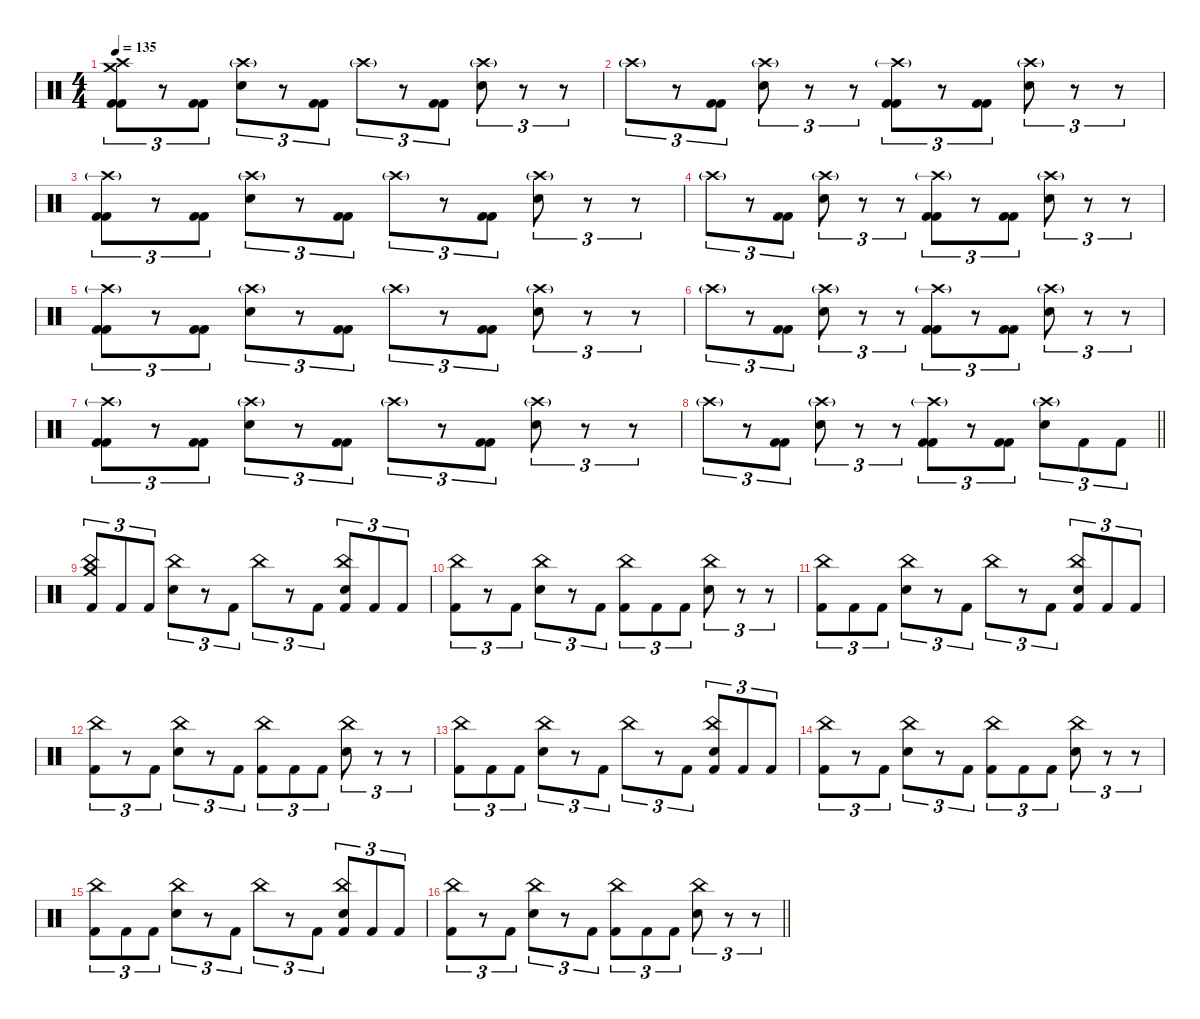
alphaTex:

\defaultSystemsLayout 4
\hideDynamics
\bracketExtendMode nobrackets
\singleTrackTrackNamePolicy hidden
\multiTrackTrackNamePolicy hidden
\otherSystemsTrackNameOrientation horizontal
\track ("Gene Hoglan" "drm.") {instrument percussion}
\staff {score}
\articulation defaults
\ts (4 4)
\tempo 135
\clef neutral
\ks c
("Crash high (hit)" "Crash medium (hit)" "Kick (hit) 2" "Kick (hit) 2").8{tu (3 2) dy f beam Down} r.8{tu (3 2) beam Down} ("Kick (hit) 2" "Kick (hit) 2").8{tu (3 2) beam Down} ("Crash high (hit)"{g} "Snare (hit) 2").8{tu (3 2) beam Down} r.8{tu (3 2) beam Down} ("Kick (hit) 2" "Kick (hit) 2").8{tu (3 2) beam Down} "Crash high (hit)"{g}.8{tu (3 2) dy mf beam Down} r.8{tu (3 2) beam Down} ("Kick (hit) 2" "Kick (hit) 2").8{tu (3 2) dy f beam Down} ("Crash high (hit)"{g} "Snare (hit) 2").8{tu (3 2) beam Down} r.8{tu (3 2) beam Down} r.8{tu (3 2) beam Down} |
"Crash high (hit)"{g}.8{tu (3 2) dy mf beam Down} r.8{tu (3 2) beam Down} ("Kick (hit) 2" "Kick (hit) 2").8{tu (3 2) dy f beam Down} ("Crash high (hit)"{g} "Snare (hit) 2").8{tu (3 2) beam Down} r.8{tu (3 2) beam Down} r.8{tu (3 2) beam Down} ("Crash high (hit)"{g} "Kick (hit) 2" "Kick (hit) 2").8{tu (3 2) beam Down} r.8{tu (3 2) beam Down} ("Kick (hit) 2" "Kick (hit) 2").8{tu (3 2) beam Down} ("Crash high (hit)"{g} "Snare (hit) 2").8{tu (3 2) beam Down} r.8{tu (3 2) beam Down} r.8{tu (3 2) beam Down} |
("Crash high (hit)"{g} "Kick (hit) 2" "Kick (hit) 2").8{tu (3 2) beam Down} r.8{tu (3 2) beam Down} ("Kick (hit) 2" "Kick (hit) 2").8{tu (3 2) beam Down} ("Crash high (hit)"{g} "Snare (hit) 2").8{tu (3 2) beam Down} r.8{tu (3 2) beam Down} ("Kick (hit) 2" "Kick (hit) 2").8{tu (3 2) beam Down} "Crash high (hit)"{g}.8{tu (3 2) dy mf beam Down} r.8{tu (3 2) beam Down} ("Kick (hit) 2" "Kick (hit) 2").8{tu (3 2) dy f beam Down} ("Crash high (hit)"{g} "Snare (hit) 2").8{tu (3 2) beam Down} r.8{tu (3 2) beam Down} r.8{tu (3 2) beam Down} |
"Crash high (hit)"{g}.8{tu (3 2) dy mf beam Down} r.8{tu (3 2) beam Down} ("Kick (hit) 2" "Kick (hit) 2").8{tu (3 2) dy f beam Down} ("Crash high (hit)"{g} "Snare (hit) 2").8{tu (3 2) beam Down} r.8{tu (3 2) beam Down} r.8{tu (3 2) beam Down} ("Crash high (hit)"{g} "Kick (hit) 2" "Kick (hit) 2").8{tu (3 2) beam Down} r.8{tu (3 2) beam Down} ("Kick (hit) 2" "Kick (hit) 2").8{tu (3 2) beam Down} ("Crash high (hit)"{g} "Snare (hit) 2").8{tu (3 2) beam Down} r.8{tu (3 2) beam Down} r.8{tu (3 2) beam Down} |
("Crash high (hit)"{g} "Kick (hit) 2" "Kick (hit) 2").8{tu (3 2) beam Down} r.8{tu (3 2) beam Down} ("Kick (hit) 2" "Kick (hit) 2").8{tu (3 2) beam Down} ("Crash high (hit)"{g} "Snare (hit) 2").8{tu (3 2) beam Down} r.8{tu (3 2) beam Down} ("Kick (hit) 2" "Kick (hit) 2").8{tu (3 2) beam Down} "Crash high (hit)"{g}.8{tu (3 2) dy mf beam Down} r.8{tu (3 2) beam Down} ("Kick (hit) 2" "Kick (hit) 2").8{tu (3 2) dy f beam Down} ("Crash high (hit)"{g} "Snare (hit) 2").8{tu (3 2) beam Down} r.8{tu (3 2) beam Down} r.8{tu (3 2) beam Down} |
"Crash high (hit)"{g}.8{tu (3 2) dy mf beam Down} r.8{tu (3 2) beam Down} ("Kick (hit) 2" "Kick (hit) 2").8{tu (3 2) dy f beam Down} ("Crash high (hit)"{g} "Snare (hit) 2").8{tu (3 2) beam Down} r.8{tu (3 2) beam Down} r.8{tu (3 2) beam Down} ("Crash high (hit)"{g} "Kick (hit) 2" "Kick (hit) 2").8{tu (3 2) beam Down} r.8{tu (3 2) beam Down} ("Kick (hit) 2" "Kick (hit) 2").8{tu (3 2) beam Down} ("Crash high (hit)"{g} "Snare (hit) 2").8{tu (3 2) beam Down} r.8{tu (3 2) beam Down} r.8{tu (3 2) beam Down} |
("Crash high (hit)"{g} "Kick (hit) 2" "Kick (hit) 2").8{tu (3 2) beam Down} r.8{tu (3 2) beam Down} ("Kick (hit) 2" "Kick (hit) 2").8{tu (3 2) beam Down} ("Crash high (hit)"{g} "Snare (hit) 2").8{tu (3 2) beam Down} r.8{tu (3 2) beam Down} ("Kick (hit) 2" "Kick (hit) 2").8{tu (3 2) beam Down} "Crash high (hit)"{g}.8{tu (3 2) dy mf beam Down} r.8{tu (3 2) beam Down} ("Kick (hit) 2" "Kick (hit) 2").8{tu (3 2) dy f beam Down} ("Crash high (hit)"{g} "Snare (hit) 2").8{tu (3 2) beam Down} r.8{tu (3 2) beam Down} r.8{tu (3 2) beam Down} |
\barLineRight lightlight "Crash high (hit)"{g}.8{tu (3 2) dy mf beam Down}
r.8{tu (3 2) beam Down} ("Kick (hit) 2" "Kick (hit) 2").8{tu (3 2) dy f beam Down} ("Crash high (hit)"{g} "Snare (hit) 2").8{tu (3 2) beam Down} r.8{tu (3 2) beam Down} r.8{tu (3 2) beam Down} ("Crash high (hit)"{g} "Kick (hit) 2" "Kick (hit) 2").8{tu (3 2) beam Down} r.8{tu (3 2) beam Down} ("Kick (hit) 2" "Kick (hit) 2").8{tu (3 2) beam Down} ("Crash high (hit)"{g} "Snare (hit) 2").8{tu (3 2) beam Down} "Kick (hit) 2".8{tu (3 2) beam Down} "Kick (hit) 2".8{tu (3 2) beam Down} |
("Crash medium (hit)" "China (hit)" "Kick (hit) 2").8{tu (3 2) beam Up} "Kick (hit) 2".8{tu (3 2) beam Up} "Kick (hit) 2".8{tu (3 2) beam Up} ("China (hit)" "Snare (hit) 2").8{tu (3 2) dy mf beam Down} r.8{tu (3 2) beam Down} "Kick (hit) 2".8{tu (3 2) dy f beam Down} "China (hit)".8{tu (3 2) dy mf beam Down} r.8{tu (3 2) beam Down} "Kick (hit) 2".8{tu (3 2) dy f beam Down} ("China (hit)" "Snare (hit) 2" "Kick (hit) 2").8{tu (3 2) dy mf beam Up} "Kick (hit) 2".8{tu (3 2) dy f beam Up} "Kick (hit) 2".8{tu (3 2) beam Up} |
("China (hit)" "Kick (hit) 2").8{tu (3 2) dy mf beam Down} r.8{tu (3 2) beam Down} "Kick (hit) 2".8{tu (3 2) dy f beam Down} ("China (hit)" "Snare (hit) 2").8{tu (3 2) dy mf beam Down} r.8{tu (3 2) beam Down} "Kick (hit) 2".8{tu (3 2) dy f beam Down} ("China (hit)" "Kick (hit) 2").8{tu (3 2) dy mf beam Down} "Kick (hit) 2".8{tu (3 2) dy f beam Down} "Kick (hit) 2".8{tu (3 2) beam Down} ("China (hit)" "Snare (hit) 2").8{tu (3 2) dy mf beam Down} r.8{tu (3 2) beam Down} r.8{tu (3 2) beam Down} |
("China (hit)" "Kick (hit) 2").8{tu (3 2) beam Down} "Kick (hit) 2".8{tu (3 2) dy f beam Down} "Kick (hit) 2".8{tu (3 2) beam Down} ("China (hit)" "Snare (hit) 2").8{tu (3 2) dy mf beam Down} r.8{tu (3 2) beam Down} "Kick (hit) 2".8{tu (3 2) dy f beam Down} "China (hit)".8{tu (3 2) dy mf beam Down} r.8{tu (3 2) beam Down} "Kick (hit) 2".8{tu (3 2) dy f beam Down} ("China (hit)" "Snare (hit) 2" "Kick (hit) 2").8{tu (3 2) dy mf beam Up} "Kick (hit) 2".8{tu (3 2) dy f beam Up} "Kick (hit) 2".8{tu (3 2) beam Up} |
("China (hit)" "Kick (hit) 2").8{tu (3 2) dy mf beam Down} r.8{tu (3 2) beam Down} "Kick (hit) 2".8{tu (3 2) dy f beam Down} ("China (hit)" "Snare (hit) 2").8{tu (3 2) dy mf beam Down} r.8{tu (3 2) beam Down} "Kick (hit) 2".8{tu (3 2) dy f beam Down} ("China (hit)" "Kick (hit) 2").8{tu (3 2) dy mf beam Down} "Kick (hit) 2".8{tu (3 2) dy f beam Down} "Kick (hit) 2".8{tu (3 2) beam Down} ("China (hit)" "Snare (hit) 2").8{tu (3 2) dy mf beam Down} r.8{tu (3 2) beam Down} r.8{tu (3 2) beam Down} |
("China (hit)" "Kick (hit) 2").8{tu (3 2) beam Down} "Kick (hit) 2".8{tu (3 2) dy f beam Down} "Kick (hit) 2".8{tu (3 2) beam Down} ("China (hit)" "Snare (hit) 2").8{tu (3 2) dy mf beam Down} r.8{tu (3 2) beam Down} "Kick (hit) 2".8{tu (3 2) dy f beam Down} "China (hit)".8{tu (3 2) dy mf beam Down} r.8{tu (3 2) beam Down} "Kick (hit) 2".8{tu (3 2) dy f beam Down} ("China (hit)" "Snare (hit) 2" "Kick (hit) 2").8{tu (3 2) dy mf beam Up} "Kick (hit) 2".8{tu (3 2) dy f beam Up} "Kick (hit) 2".8{tu (3 2) beam Up} |
("China (hit)" "Kick (hit) 2").8{tu (3 2) dy mf beam Down} r.8{tu (3 2) beam Down} "Kick (hit) 2".8{tu (3 2) dy f beam Down} ("China (hit)" "Snare (hit) 2").8{tu (3 2) dy mf beam Down} r.8{tu (3 2) beam Down} "Kick (hit) 2".8{tu (3 2) dy f beam Down} ("China (hit)" "Kick (hit) 2").8{tu (3 2) dy mf beam Down} "Kick (hit) 2".8{tu (3 2) dy f beam Down} "Kick (hit) 2".8{tu (3 2) beam Down} ("China (hit)" "Snare (hit) 2").8{tu (3 2) dy mf beam Down} r.8{tu (3 2) beam Down} r.8{tu (3 2) beam Down} |
("China (hit)" "Kick (hit) 2").8{tu (3 2) beam Down} "Kick (hit) 2".8{tu (3 2) dy f beam Down} "Kick (hit) 2".8{tu (3 2) beam Down} ("China (hit)" "Snare (hit) 2").8{tu (3 2) dy mf beam Down} r.8{tu (3 2) beam Down} "Kick (hit) 2".8{tu (3 2) dy f beam Down} "China (hit)".8{tu (3 2) dy mf beam Down} r.8{tu (3 2) beam Down} "Kick (hit) 2".8{tu (3 2) dy f beam Down} ("China (hit)" "Snare (hit) 2" "Kick (hit) 2").8{tu (3 2) dy mf beam Up} "Kick (hit) 2".8{tu (3 2) dy f beam Up} "Kick (hit) 2".8{tu (3 2) beam Up} |
\barLineRight lightlight
("China (hit)" "Kick (hit) 2").8{tu (3 2) dy mf beam Down} r.8{tu (3 2) beam Down} "Kick (hit) 2".8{tu (3 2) dy f beam Down} ("China (hit)" "Snare (hit) 2").8{tu (3 2) dy mf beam Down} r.8{tu (3 2) beam Down} "Kick (hit) 2".8{tu (3 2) dy f beam Down} ("China (hit)" "Kick (hit) 2").8{tu (3 2) dy mf beam Down} "Kick (hit) 2".8{tu (3 2) dy f beam Down} "Kick (hit) 2".8{tu (3 2) beam Down} ("China (hit)" "Snare (hit) 2").8{tu (3 2) dy mf beam Down} r.8{tu (3 2) beam Down} r.8{tu (3 2) beam Down}
